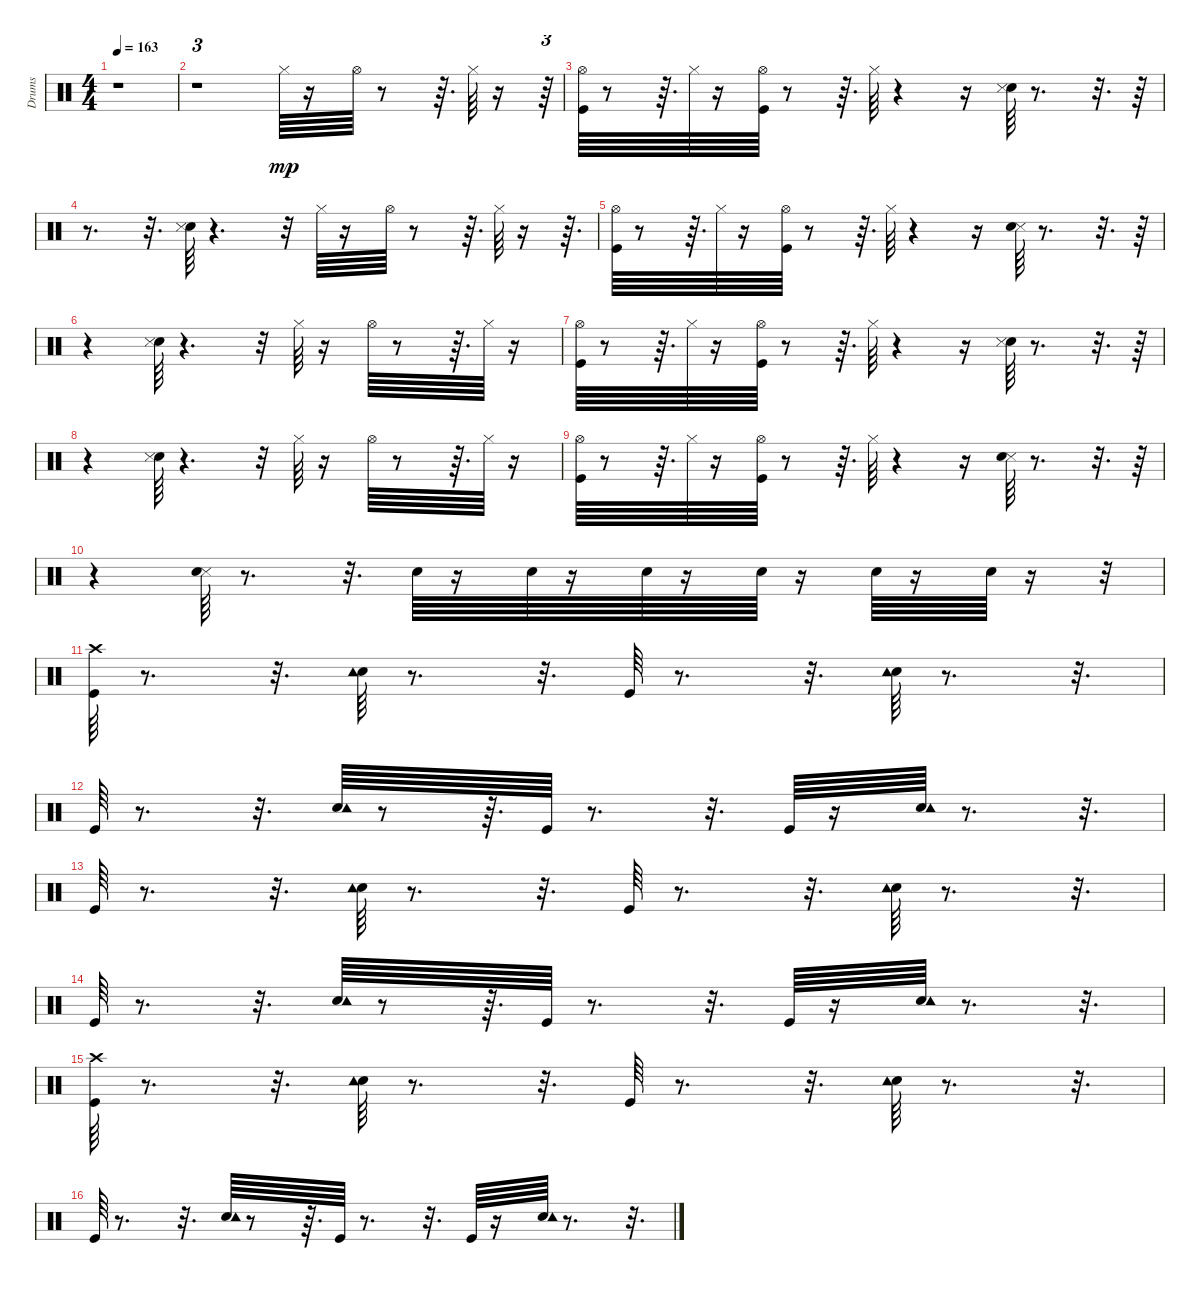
\track ("Drums" "Drums") {instrument percussion}
\staff {score}
\articulation defaults
\ts (4 4)
\tempo 163
\clef neutral
\ks c
r.1{dy mp} |
r.1{tu (3 2)} "Hi-Hat (closed)".64 r.16 "Hi-Hat (open)".64 r.8 r.64{d} "Hi-Hat (closed)".64 r.16 r.64{tu (3 2)} |
("Kick (hit)" "Hi-Hat (open)").64 r.8 r.64{d} "Hi-Hat (closed)".64 r.16 ("Kick (hit)" "Hi-Hat (open)").64 r.8 r.64{d} "Hi-Hat (closed)".64 r.4 r.16 ("Hand Clap (hit)" "Snare (side stick) 3").64 r.8{d} r.32{d} r.64 |
r.8{d} r.32{d} ("Hand Clap (hit)" "Snare (side stick) 3").64 r.4{d} r.32 "Hi-Hat (closed)".64 r.16 "Hi-Hat (open)".64 r.8 r.64{d} "Hi-Hat (closed)".64 r.16 r.64{d} |
("Kick (hit)" "Hi-Hat (open)").64 r.8 r.64{d} "Hi-Hat (closed)".64 r.16 ("Kick (hit)" "Hi-Hat (open)").64 r.8 r.64{d} "Hi-Hat (closed)".64 r.4 r.16 ("Snare (side stick) 3" "Hand Clap (hit)").64 r.8{d} r.32{d} r.64 |
r.4 ("Hand Clap (hit)" "Snare (side stick) 3").64 r.4{d} r.32 "Hi-Hat (closed)".64 r.16 "Hi-Hat (open)".64 r.8 r.64{d} "Hi-Hat (closed)".64 r.16 |
("Kick (hit)" "Hi-Hat (open)").64 r.8 r.64{d} "Hi-Hat (closed)".64 r.16 ("Kick (hit)" "Hi-Hat (open)").64 r.8 r.64{d} "Hi-Hat (closed)".64 r.4 r.16 ("Hand Clap (hit)" "Snare (side stick) 3").64 r.8{d} r.32{d} r.64 |
r.4 ("Hand Clap (hit)" "Snare (side stick) 3").64 r.4{d} r.32 "Hi-Hat (closed)".64 r.16 "Hi-Hat (open)".64 r.8 r.64{d} "Hi-Hat (closed)".64 r.16 |
("Kick (hit)" "Hi-Hat (open)").64 r.8 r.64{d} "Hi-Hat (closed)".64 r.16 ("Kick (hit)" "Hi-Hat (open)").64 r.8 r.64{d} "Hi-Hat (closed)".64 r.4 r.16 ("Snare (side stick) 3" "Hand Clap (hit)").64 r.8{d} r.32{d} r.64 |
r.4 ("Snare (side stick) 3" "Hand Clap (hit)").64 r.8{d} r.32{d} "Snare (hit) 2".64 r.16 "Snare (hit) 2".64 r.16 "Snare (hit) 2".64 r.16 "Snare (hit) 2".64 r.16 "Snare (hit) 2".64 r.16 "Snare (hit) 2".64 r.16 r.32 |
("Kick (hit)" "Crash high (hit)").64 r.8{d} r.32{d} ("Snare (hit) 2" "Tambourine (hit)").64 r.8{d} r.32{d} "Kick (hit)".64 r.8{d} r.32{d} ("Snare (hit) 2" "Tambourine (hit)").64 r.8{d} r.32{d} |
"Kick (hit)".64 r.8{d} r.32{d} ("Snare (hit) 2" "Tambourine (hit)").64 r.8 r.64{d} "Kick (hit)".64 r.8{d} r.32{d} "Kick (hit)".64 r.16 ("Snare (hit) 2" "Tambourine (hit)").64 r.8{d} r.32{d} |
"Kick (hit)".64 r.8{d} r.32{d} ("Snare (hit) 2" "Tambourine (hit)").64 r.8{d} r.32{d} "Kick (hit)".64 r.8{d} r.32{d} ("Snare (hit) 2" "Tambourine (hit)").64 r.8{d} r.32{d} |
"Kick (hit)".64 r.8{d} r.32{d} ("Snare (hit) 2" "Tambourine (hit)").64 r.8 r.64{d} "Kick (hit)".64 r.8{d} r.32{d} "Kick (hit)".64 r.16 ("Snare (hit) 2" "Tambourine (hit)").64 r.8{d} r.32{d} |
("Kick (hit)" "Crash high (hit)").64 r.8{d} r.32{d} ("Snare (hit) 2" "Tambourine (hit)").64 r.8{d} r.32{d} "Kick (hit)".64 r.8{d} r.32{d} ("Snare (hit) 2" "Tambourine (hit)").64 r.8{d} r.32{d} |
"Kick (hit)".64 r.8{d} r.32{d} ("Snare (hit) 2" "Tambourine (hit)").64 r.8 r.64{d} "Kick (hit)".64 r.8{d} r.32{d} "Kick (hit)".64 r.16 ("Snare (hit) 2" "Tambourine (hit)").64 r.8{d} r.32{d}
